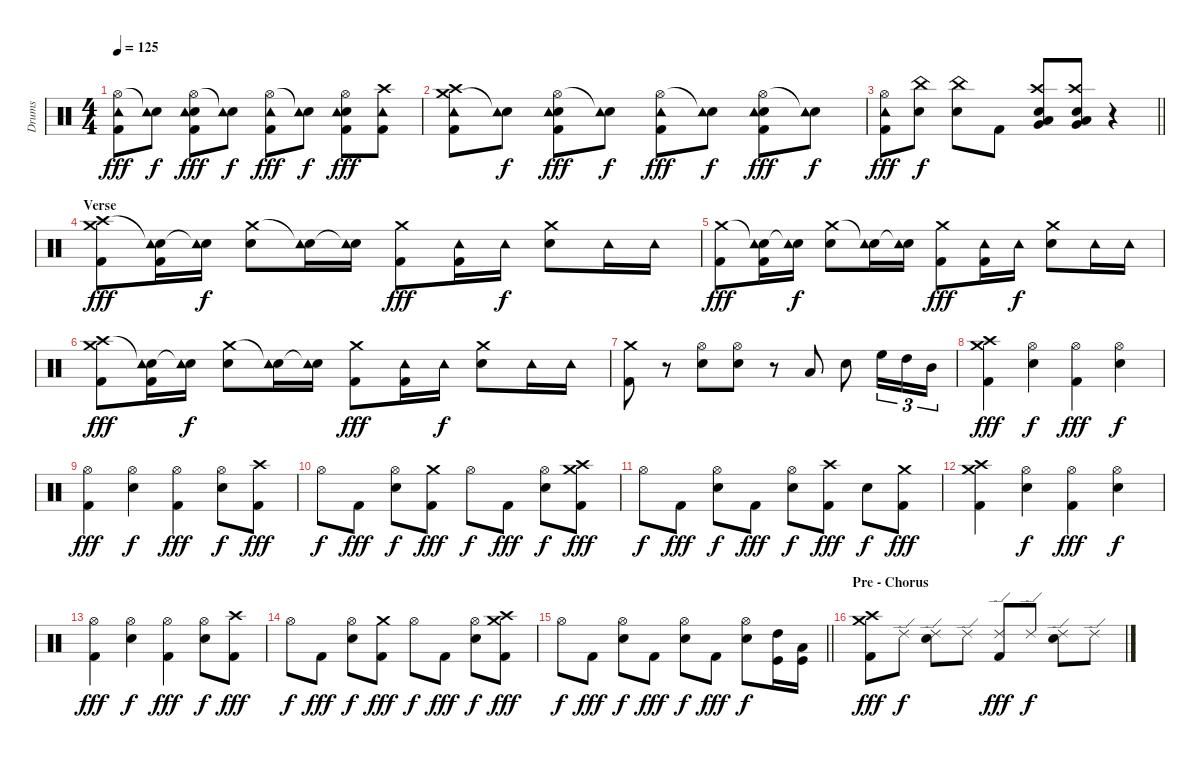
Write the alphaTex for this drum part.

\track ("Drums" "Drums") {instrument percussion}
\staff {score}
\articulation defaults
\ts (4 4)
\tempo 125
\clef neutral
\ks c
("Hi-Hat (open)" "Kick (hit) 2" "Tambourine (hit)").8{dy fff} ("Snare (hit)"{t} "Tambourine (hit)").8{dy f} ("Hi-Hat (open)" "Kick (hit) 2" "Electric Snare (hit)" "Tambourine (hit)").8{dy fff} ("Snare (hit)"{t} "Tambourine (hit)").8{dy f} ("Hi-Hat (open)" "Kick (hit) 2" "Tambourine (hit)").8{dy fff} ("Snare (hit)"{t} "Tambourine (hit)").8{dy f} ("Hi-Hat (open)" "Kick (hit) 2" "Electric Snare (hit)" "Tambourine (hit)").8{dy fff} ("Crash high (hit)" "Kick (hit) 2" "Tambourine (hit)").8 |
("Crash medium (hit)" "Kick (hit) 2" "Crash high (hit)" "Tambourine (hit)").8 ("Snare (hit)"{t} "Tambourine (hit)").8{dy f} ("Hi-Hat (open)" "Kick (hit) 2" "Electric Snare (hit)" "Tambourine (hit)").8{dy fff} ("Snare (hit)"{t} "Tambourine (hit)").8{dy f} ("Hi-Hat (open)" "Kick (hit) 2" "Tambourine (hit)").8{dy fff} ("Snare (hit)"{t} "Tambourine (hit)").8{dy f} ("Hi-Hat (open)" "Kick (hit) 2" "Electric Snare (hit)" "Tambourine (hit)").8{dy fff} ("Snare (hit)"{t} "Tambourine (hit)").8{dy f} |
\barLineRight lightlight
("Hi-Hat (open)" "Kick (hit) 2" "Tambourine (hit)").8{dy fff} ("Electric Snare (hit)" "China (hit)").8{dy f} ("Electric Snare (hit)" "China (hit)").8 "Kick (hit) 2".8 ("Electric Snare (hit)" "Low Tom (hit)" "Very Low Tom (hit)" "Crash high (hit)").8 ("Electric Snare (hit)" "Low Tom (hit)" "Very Low Tom (hit)" "Crash high (hit)").8 r.4 |
\section ("" "Verse")
("Crash high (hit)" "Kick (hit) 2" "Crash medium (hit)").8{dy fff} ("Snare (hit)"{t} "Tambourine (hit)" "Kick (hit) 2").16 ("Snare (hit)"{t} "Tambourine (hit)").16{dy f} ("Crash medium (hit)" "Electric Snare (hit)").8 ("Snare (hit)"{t} "Tambourine (hit)").16 ("Snare (hit)"{t} "Tambourine (hit)").16 ("Crash medium (hit)" "Kick (hit) 2").8{dy fff} ("Tambourine (hit)" "Kick (hit) 2").16 "Tambourine (hit)".16{dy f} ("Crash medium (hit)" "Electric Snare (hit)").8 "Tambourine (hit)".16 "Tambourine (hit)".16 |
("Crash medium (hit)" "Kick (hit) 2").8{dy fff} ("Snare (hit)"{t} "Tambourine (hit)" "Kick (hit) 2").16 ("Snare (hit)"{t} "Tambourine (hit)").16{dy f} ("Crash medium (hit)" "Electric Snare (hit)").8 ("Snare (hit)"{t} "Tambourine (hit)").16 ("Snare (hit)"{t} "Tambourine (hit)").16 ("Crash medium (hit)" "Kick (hit) 2").8{dy fff} ("Tambourine (hit)" "Kick (hit) 2").16 "Tambourine (hit)".16{dy f} ("Crash medium (hit)" "Electric Snare (hit)").8 "Tambourine (hit)".16 "Tambourine (hit)".16 |
("Crash high (hit)" "Kick (hit) 2" "Crash medium (hit)").8{dy fff} ("Snare (hit)"{t} "Tambourine (hit)" "Kick (hit) 2").16 ("Snare (hit)"{t} "Tambourine (hit)").16{dy f} ("Crash medium (hit)" "Electric Snare (hit)").8 ("Snare (hit)"{t} "Tambourine (hit)").16 ("Snare (hit)"{t} "Tambourine (hit)").16 ("Crash medium (hit)" "Kick (hit) 2").8{dy fff} ("Tambourine (hit)" "Kick (hit) 2").16 "Tambourine (hit)".16{dy f} ("Crash medium (hit)" "Electric Snare (hit)").8 "Tambourine (hit)".16 "Tambourine (hit)".16 |
("Crash medium (hit)" "Kick (hit) 2").8 r.8 ("Electric Snare (hit)" "Hi-Hat (open)").8 ("Electric Snare (hit)" "Hi-Hat (open)").8 r.8 "Low Tom (hit)".8 "Electric Snare (hit)".8 "High Floor Tom (hit)".16{tu (3 2)} "High Tom (hit)".16{tu (3 2)} "Mid Tom (hit)".16{tu (3 2)} |
("Crash high (hit)" "Kick (hit) 2" "Crash medium (hit)").4{dy fff} ("Hi-Hat (open)" "Electric Snare (hit)").4{dy f} ("Hi-Hat (open)" "Kick (hit) 2").4{dy fff} ("Hi-Hat (open)" "Electric Snare (hit)").4{dy f} |
("Hi-Hat (open)" "Kick (hit) 2").4{dy fff} ("Hi-Hat (open)" "Electric Snare (hit)").4{dy f} ("Hi-Hat (open)" "Kick (hit) 2").4{dy fff} ("Hi-Hat (open)" "Electric Snare (hit)").8{dy f} ("Crash high (hit)" "Kick (hit) 2").8{dy fff} |
"Hi-Hat (open)".8{dy f} "Kick (hit) 2".8{dy fff} ("Hi-Hat (open)" "Electric Snare (hit)").8{dy f} ("Crash medium (hit)" "Kick (hit) 2").8{dy fff} "Hi-Hat (open)".8{dy f} "Kick (hit) 2".8{dy fff} ("Hi-Hat (open)" "Electric Snare (hit)").8{dy f} ("Crash high (hit)" "Kick (hit) 2" "Crash medium (hit)").8{dy fff} |
"Hi-Hat (open)".8{dy f} "Kick (hit) 2".8{dy fff} ("Hi-Hat (open)" "Electric Snare (hit)").8{dy f} "Kick (hit) 2".8{dy fff} ("Hi-Hat (open)" "Electric Snare (hit)").8{dy f} ("Crash high (hit)" "Kick (hit) 2").8{dy fff} "Electric Snare (hit)".8{dy f} ("Crash medium (hit)" "Kick (hit) 2").8{dy fff} |
("Crash high (hit)" "Kick (hit) 2" "Crash medium (hit)").4 ("Hi-Hat (open)" "Electric Snare (hit)").4{dy f} ("Hi-Hat (open)" "Kick (hit) 2").4{dy fff} ("Hi-Hat (open)" "Electric Snare (hit)").4{dy f} |
("Hi-Hat (open)" "Kick (hit) 2").4{dy fff} ("Hi-Hat (open)" "Electric Snare (hit)").4{dy f} ("Hi-Hat (open)" "Kick (hit) 2").4{dy fff} ("Hi-Hat (open)" "Electric Snare (hit)").8{dy f} ("Crash high (hit)" "Kick (hit) 2").8{dy fff} |
"Hi-Hat (open)".8{dy f} "Kick (hit) 2".8{dy fff} ("Hi-Hat (open)" "Electric Snare (hit)").8{dy f} ("Crash medium (hit)" "Kick (hit) 2").8{dy fff} "Hi-Hat (open)".8{dy f} "Kick (hit) 2".8{dy fff} ("Hi-Hat (open)" "Electric Snare (hit)").8{dy f} ("Crash high (hit)" "Kick (hit) 2" "Crash medium (hit)").8{dy fff} |
\barLineRight lightlight "Hi-Hat (open)".8{dy f} "Kick (hit) 2".8{dy fff}
("Hi-Hat (open)" "Electric Snare (hit)").8{dy f} "Kick (hit) 2".8{dy fff} ("Hi-Hat (open)" "Electric Snare (hit)").8{dy f} "Kick (hit) 2".8{dy fff} ("Hi-Hat (open)" "Electric Snare (hit)").8{dy f} ("High Tom (hit)" "Kick (hit)").16 ("Low Tom (hit)" "Kick (hit)").16 |
\section ("" "Pre - Chorus")
("Crash high (hit)" "Kick (hit) 2" "Crash medium (hit)").8{dy fff} "Ride (edge) 2".8{dy f} ("Ride (edge) 2" "Electric Snare (hit)").8 "Ride (edge) 2".8 ("Ride (edge) 2" "Kick (hit) 2").8{dy fff} "Ride (edge) 2".8{dy f} ("Ride (edge) 2" "Electric Snare (hit)").8 "Ride (edge) 2".8
